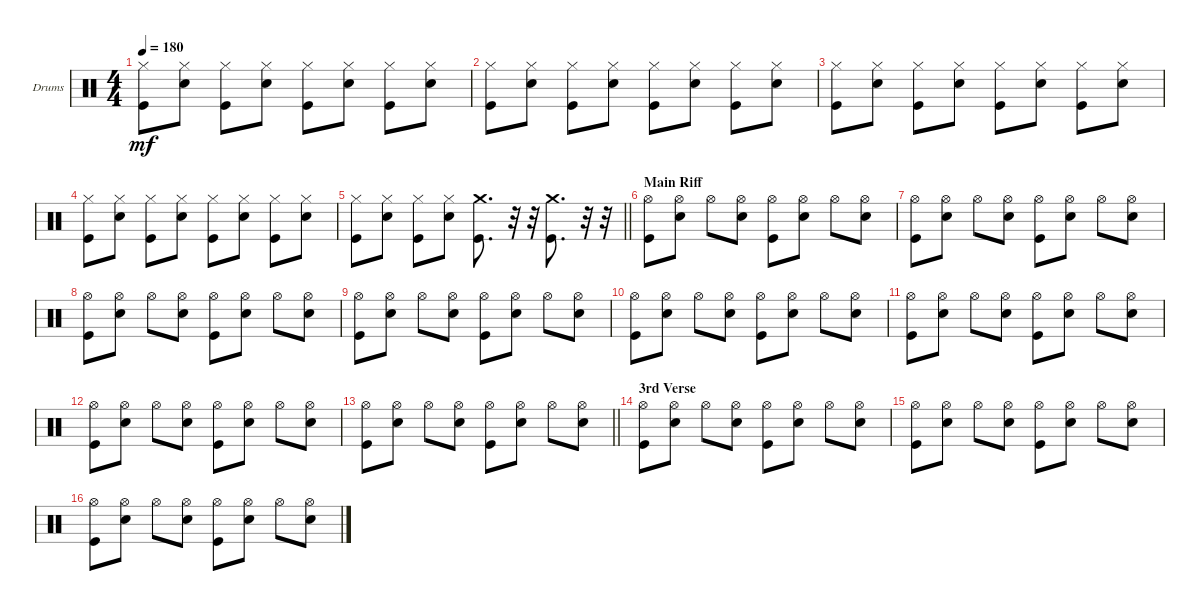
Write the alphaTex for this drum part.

\bracketExtendMode groupsimilarinstruments
\firstSystemTrackNameOrientation horizontal
\otherSystemsTrackNameOrientation horizontal
\track ("Drumkit" "Drums") {instrument percussion}
\staff {score}
\articulation defaults
\ts (4 4)
\tempo 180
\clef neutral
\ks c
("Kick (hit)" "Hi-Hat (closed)").8{dy mf} ("Snare (hit) 2" "Hi-Hat (closed)").8 ("Kick (hit)" "Hi-Hat (closed)").8 ("Snare (hit) 2" "Hi-Hat (closed)").8 ("Kick (hit)" "Hi-Hat (closed)").8 ("Snare (hit) 2" "Hi-Hat (closed)").8 ("Kick (hit)" "Hi-Hat (closed)").8 ("Snare (hit) 2" "Hi-Hat (closed)").8 |
("Kick (hit)" "Hi-Hat (closed)").8 ("Snare (hit) 2" "Hi-Hat (closed)").8 ("Kick (hit)" "Hi-Hat (closed)").8 ("Snare (hit) 2" "Hi-Hat (closed)").8 ("Kick (hit)" "Hi-Hat (closed)").8 ("Snare (hit) 2" "Hi-Hat (closed)").8 ("Kick (hit)" "Hi-Hat (closed)").8 ("Snare (hit) 2" "Hi-Hat (closed)").8 |
("Kick (hit)" "Hi-Hat (closed)").8 ("Snare (hit) 2" "Hi-Hat (closed)").8 ("Kick (hit)" "Hi-Hat (closed)").8 ("Snare (hit) 2" "Hi-Hat (closed)").8 ("Kick (hit)" "Hi-Hat (closed)").8 ("Snare (hit) 2" "Hi-Hat (closed)").8 ("Kick (hit)" "Hi-Hat (closed)").8 ("Snare (hit) 2" "Hi-Hat (closed)").8 |
("Kick (hit)" "Hi-Hat (closed)").8 ("Snare (hit) 2" "Hi-Hat (closed)").8 ("Kick (hit)" "Hi-Hat (closed)").8 ("Snare (hit) 2" "Hi-Hat (closed)").8 ("Kick (hit)" "Hi-Hat (closed)").8 ("Snare (hit) 2" "Hi-Hat (closed)").8 ("Kick (hit)" "Hi-Hat (closed)").8 ("Snare (hit) 2" "Hi-Hat (closed)").8 |
\barLineRight lightlight
("Kick (hit)" "Hi-Hat (closed)").8 ("Snare (hit) 2" "Hi-Hat (closed)").8 ("Kick (hit)" "Hi-Hat (closed)").8 ("Snare (hit) 2" "Hi-Hat (closed)").8 ("Kick (hit)" "Crash medium (hit)").8{d} r.32 r.32 ("Kick (hit)" "Crash medium (hit)").8{d} r.32 r.32 |
\section ("" "Main Riff")
("Kick (hit)" "Hi-Hat (open)").8 ("Snare (hit) 2" "Hi-Hat (open)").8 "Hi-Hat (open)".8 ("Snare (hit) 2" "Hi-Hat (open)").8 ("Kick (hit)" "Hi-Hat (open)").8 ("Snare (hit) 2" "Hi-Hat (open)").8 "Hi-Hat (open)".8 ("Snare (hit) 2" "Hi-Hat (open)").8 |
("Kick (hit)" "Hi-Hat (open)").8 ("Snare (hit) 2" "Hi-Hat (open)").8 "Hi-Hat (open)".8 ("Snare (hit) 2" "Hi-Hat (open)").8 ("Kick (hit)" "Hi-Hat (open)").8 ("Snare (hit) 2" "Hi-Hat (open)").8 "Hi-Hat (open)".8 ("Snare (hit) 2" "Hi-Hat (open)").8 |
("Kick (hit)" "Hi-Hat (open)").8 ("Snare (hit) 2" "Hi-Hat (open)").8 "Hi-Hat (open)".8 ("Snare (hit) 2" "Hi-Hat (open)").8 ("Kick (hit)" "Hi-Hat (open)").8 ("Snare (hit) 2" "Hi-Hat (open)").8 "Hi-Hat (open)".8 ("Snare (hit) 2" "Hi-Hat (open)").8 |
("Kick (hit)" "Hi-Hat (open)").8 ("Snare (hit) 2" "Hi-Hat (open)").8 "Hi-Hat (open)".8 ("Snare (hit) 2" "Hi-Hat (open)").8 ("Kick (hit)" "Hi-Hat (open)").8 ("Snare (hit) 2" "Hi-Hat (open)").8 "Hi-Hat (open)".8 ("Snare (hit) 2" "Hi-Hat (open)").8 |
("Kick (hit)" "Hi-Hat (open)").8 ("Snare (hit) 2" "Hi-Hat (open)").8 "Hi-Hat (open)".8 ("Snare (hit) 2" "Hi-Hat (open)").8 ("Kick (hit)" "Hi-Hat (open)").8 ("Snare (hit) 2" "Hi-Hat (open)").8 "Hi-Hat (open)".8 ("Snare (hit) 2" "Hi-Hat (open)").8 |
("Kick (hit)" "Hi-Hat (open)").8 ("Snare (hit) 2" "Hi-Hat (open)").8 "Hi-Hat (open)".8 ("Snare (hit) 2" "Hi-Hat (open)").8 ("Kick (hit)" "Hi-Hat (open)").8 ("Snare (hit) 2" "Hi-Hat (open)").8 "Hi-Hat (open)".8 ("Snare (hit) 2" "Hi-Hat (open)").8 |
("Kick (hit)" "Hi-Hat (open)").8 ("Snare (hit) 2" "Hi-Hat (open)").8 "Hi-Hat (open)".8 ("Snare (hit) 2" "Hi-Hat (open)").8 ("Kick (hit)" "Hi-Hat (open)").8 ("Snare (hit) 2" "Hi-Hat (open)").8 "Hi-Hat (open)".8 ("Snare (hit) 2" "Hi-Hat (open)").8 |
\barLineRight lightlight
("Kick (hit)" "Hi-Hat (open)").8 ("Snare (hit) 2" "Hi-Hat (open)").8 "Hi-Hat (open)".8 ("Snare (hit) 2" "Hi-Hat (open)").8 ("Kick (hit)" "Hi-Hat (open)").8 ("Snare (hit) 2" "Hi-Hat (open)").8 "Hi-Hat (open)".8 ("Snare (hit) 2" "Hi-Hat (open)").8 |
\section ("" "3rd Verse")
("Kick (hit)" "Hi-Hat (open)").8 ("Snare (hit) 2" "Hi-Hat (open)").8 "Hi-Hat (open)".8 ("Snare (hit) 2" "Hi-Hat (open)").8 ("Kick (hit)" "Hi-Hat (open)").8 ("Snare (hit) 2" "Hi-Hat (open)").8 "Hi-Hat (open)".8 ("Snare (hit) 2" "Hi-Hat (open)").8 |
("Kick (hit)" "Hi-Hat (open)").8 ("Snare (hit) 2" "Hi-Hat (open)").8 "Hi-Hat (open)".8 ("Snare (hit) 2" "Hi-Hat (open)").8 ("Kick (hit)" "Hi-Hat (open)").8 ("Snare (hit) 2" "Hi-Hat (open)").8 "Hi-Hat (open)".8 ("Snare (hit) 2" "Hi-Hat (open)").8 |
("Kick (hit)" "Hi-Hat (open)").8 ("Snare (hit) 2" "Hi-Hat (open)").8 "Hi-Hat (open)".8 ("Snare (hit) 2" "Hi-Hat (open)").8 ("Kick (hit)" "Hi-Hat (open)").8 ("Snare (hit) 2" "Hi-Hat (open)").8 "Hi-Hat (open)".8 ("Snare (hit) 2" "Hi-Hat (open)").8
